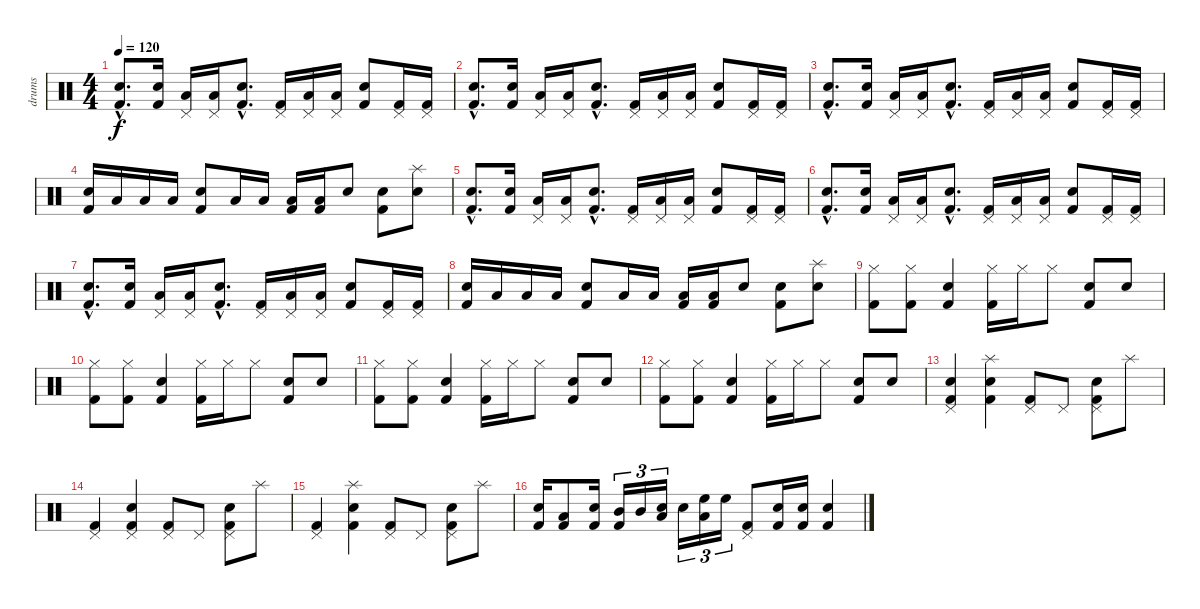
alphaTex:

\track ("drums" "drums") {instrument percussion}
\staff {score}
\articulation defaults
\ts (4 4)
\tempo 120
\clef neutral
\ks c
("Electric Snare (hit)"{hac} "Kick (hit) 2"{hac}).8{d dy f} ("Electric Snare (hit)" "Kick (hit) 2").16 ("Pedal Hi-Hat (hit)" "Low Tom (hit)").16 ("Pedal Hi-Hat (hit)" "Low Tom (hit)").16 ("Electric Snare (hit)"{hac} "Kick (hit) 2"{hac}).8{d} ("Pedal Hi-Hat (hit)" "Kick (hit) 2").16 ("Pedal Hi-Hat (hit)" "Low Tom (hit)").16 ("Pedal Hi-Hat (hit)" "Low Tom (hit)").16 ("Electric Snare (hit)" "Kick (hit) 2").8 ("Pedal Hi-Hat (hit)" "Kick (hit) 2").16 ("Pedal Hi-Hat (hit)" "Kick (hit) 2").16 |
("Electric Snare (hit)"{hac} "Kick (hit) 2"{hac}).8{d} ("Electric Snare (hit)" "Kick (hit) 2").16 ("Pedal Hi-Hat (hit)" "Low Tom (hit)").16 ("Pedal Hi-Hat (hit)" "Low Tom (hit)").16 ("Electric Snare (hit)"{hac} "Kick (hit) 2"{hac}).8{d} ("Pedal Hi-Hat (hit)" "Kick (hit) 2").16 ("Pedal Hi-Hat (hit)" "Low Tom (hit)").16 ("Pedal Hi-Hat (hit)" "Low Tom (hit)").16 ("Electric Snare (hit)" "Kick (hit) 2").8 ("Pedal Hi-Hat (hit)" "Kick (hit) 2").16 ("Pedal Hi-Hat (hit)" "Kick (hit) 2").16 |
("Electric Snare (hit)"{hac} "Kick (hit) 2"{hac}).8{d} ("Electric Snare (hit)" "Kick (hit) 2").16 ("Pedal Hi-Hat (hit)" "Low Tom (hit)").16 ("Pedal Hi-Hat (hit)" "Low Tom (hit)").16 ("Electric Snare (hit)"{hac} "Kick (hit) 2"{hac}).8{d} ("Pedal Hi-Hat (hit)" "Kick (hit) 2").16 ("Pedal Hi-Hat (hit)" "Low Tom (hit)").16 ("Pedal Hi-Hat (hit)" "Low Tom (hit)").16 ("Electric Snare (hit)" "Kick (hit) 2").8 ("Pedal Hi-Hat (hit)" "Kick (hit) 2").16 ("Pedal Hi-Hat (hit)" "Kick (hit) 2").16 |
("Electric Snare (hit)" "Kick (hit) 2").16 "Low Tom (hit)".16 "Low Tom (hit)".16 "Low Tom (hit)".16 ("Electric Snare (hit)" "Kick (hit) 2").8 "Low Tom (hit)".16 "Low Tom (hit)".16 ("Low Tom (hit)" "Kick (hit) 2").16 ("Low Tom (hit)" "Kick (hit) 2").16 "Electric Snare (hit)".8 ("Electric Snare (hit)" "Kick (hit) 2").8 ("Splash (hit)" "Electric Snare (hit)").8 |
("Electric Snare (hit)"{hac} "Kick (hit) 2"{hac}).8{d} ("Electric Snare (hit)" "Kick (hit) 2").16 ("Pedal Hi-Hat (hit)" "Low Tom (hit)").16 ("Pedal Hi-Hat (hit)" "Low Tom (hit)").16 ("Electric Snare (hit)"{hac} "Kick (hit) 2"{hac}).8{d} ("Pedal Hi-Hat (hit)" "Kick (hit) 2").16 ("Pedal Hi-Hat (hit)" "Low Tom (hit)").16 ("Pedal Hi-Hat (hit)" "Low Tom (hit)").16 ("Electric Snare (hit)" "Kick (hit) 2").8 ("Pedal Hi-Hat (hit)" "Kick (hit) 2").16 ("Pedal Hi-Hat (hit)" "Kick (hit) 2").16 |
("Electric Snare (hit)"{hac} "Kick (hit) 2"{hac}).8{d} ("Electric Snare (hit)" "Kick (hit) 2").16 ("Pedal Hi-Hat (hit)" "Low Tom (hit)").16 ("Pedal Hi-Hat (hit)" "Low Tom (hit)").16 ("Electric Snare (hit)"{hac} "Kick (hit) 2"{hac}).8{d} ("Pedal Hi-Hat (hit)" "Kick (hit) 2").16 ("Pedal Hi-Hat (hit)" "Low Tom (hit)").16 ("Pedal Hi-Hat (hit)" "Low Tom (hit)").16 ("Electric Snare (hit)" "Kick (hit) 2").8 ("Pedal Hi-Hat (hit)" "Kick (hit) 2").16 ("Pedal Hi-Hat (hit)" "Kick (hit) 2").16 |
("Electric Snare (hit)"{hac} "Kick (hit) 2"{hac}).8{d} ("Electric Snare (hit)" "Kick (hit) 2").16 ("Pedal Hi-Hat (hit)" "Low Tom (hit)").16 ("Pedal Hi-Hat (hit)" "Low Tom (hit)").16 ("Electric Snare (hit)"{hac} "Kick (hit) 2"{hac}).8{d} ("Pedal Hi-Hat (hit)" "Kick (hit) 2").16 ("Pedal Hi-Hat (hit)" "Low Tom (hit)").16 ("Pedal Hi-Hat (hit)" "Low Tom (hit)").16 ("Electric Snare (hit)" "Kick (hit) 2").8 ("Pedal Hi-Hat (hit)" "Kick (hit) 2").16 ("Pedal Hi-Hat (hit)" "Kick (hit) 2").16 |
("Electric Snare (hit)" "Kick (hit) 2").16 "Low Tom (hit)".16 "Low Tom (hit)".16 "Low Tom (hit)".16 ("Electric Snare (hit)" "Kick (hit) 2").8 "Low Tom (hit)".16 "Low Tom (hit)".16 ("Low Tom (hit)" "Kick (hit) 2").16 ("Low Tom (hit)" "Kick (hit) 2").16 "Electric Snare (hit)".8 ("Electric Snare (hit)" "Kick (hit) 2").8 ("Splash (hit)" "Electric Snare (hit)").8 |
("Hi-Hat (closed)" "Kick (hit) 2").8 ("Hi-Hat (closed)" "Kick (hit) 2").8 ("Snare (hit) 2" "Kick (hit) 2").4 ("Hi-Hat (closed)" "Kick (hit) 2").16 "Hi-Hat (closed)".16 "Hi-Hat (closed)".8 ("Snare (hit) 2" "Kick (hit) 2").8 "Snare (hit) 2".8 |
("Hi-Hat (closed)" "Kick (hit) 2").8 ("Hi-Hat (closed)" "Kick (hit) 2").8 ("Snare (hit) 2" "Kick (hit) 2").4 ("Hi-Hat (closed)" "Kick (hit) 2").16 "Hi-Hat (closed)".16 "Hi-Hat (closed)".8 ("Snare (hit) 2" "Kick (hit) 2").8 "Snare (hit) 2".8 |
("Hi-Hat (closed)" "Kick (hit) 2").8 ("Hi-Hat (closed)" "Kick (hit) 2").8 ("Snare (hit) 2" "Kick (hit) 2").4 ("Hi-Hat (closed)" "Kick (hit) 2").16 "Hi-Hat (closed)".16 "Hi-Hat (closed)".8 ("Snare (hit) 2" "Kick (hit) 2").8 "Snare (hit) 2".8 |
("Hi-Hat (closed)" "Kick (hit) 2").8 ("Hi-Hat (closed)" "Kick (hit) 2").8 ("Snare (hit) 2" "Kick (hit) 2").4 ("Hi-Hat (closed)" "Kick (hit) 2").16 "Hi-Hat (closed)".16 "Hi-Hat (closed)".8 ("Snare (hit) 2" "Kick (hit) 2").8 "Snare (hit) 2".8 |
("Pedal Hi-Hat (hit)" "Electric Snare (hit)" "Kick (hit) 2").4 ("Splash (hit)" "Electric Snare (hit)" "Kick (hit) 2").4 ("Pedal Hi-Hat (hit)" "Kick (hit) 2").8 "Pedal Hi-Hat (hit)".8 ("Pedal Hi-Hat (hit)" "Electric Snare (hit)" "Kick (hit) 2").8 "Splash (hit)".8 |
("Pedal Hi-Hat (hit)" "Kick (hit) 2").4 ("Pedal Hi-Hat (hit)" "Electric Snare (hit)" "Kick (hit) 2").4 ("Pedal Hi-Hat (hit)" "Kick (hit) 2").8 "Pedal Hi-Hat (hit)".8 ("Pedal Hi-Hat (hit)" "Electric Snare (hit)" "Kick (hit) 2").8 "Splash (hit)".8 |
("Pedal Hi-Hat (hit)" "Kick (hit) 2").4 ("Splash (hit)" "Electric Snare (hit)" "Kick (hit) 2").4 ("Pedal Hi-Hat (hit)" "Kick (hit) 2").8 "Pedal Hi-Hat (hit)".8 ("Pedal Hi-Hat (hit)" "Electric Snare (hit)" "Kick (hit) 2").8 "Splash (hit)".8 |
("Electric Snare (hit)" "Kick (hit) 2").16 ("Low Tom (hit)" "Kick (hit) 2").8 ("Electric Snare (hit)" "Kick (hit) 2").16 ("Mid Tom (hit)" "Kick (hit) 2").16{tu (3 2)} "Mid Tom (hit)".16{tu (3 2)} ("Electric Snare (hit)" "Low Tom (hit)").16{tu (3 2)} "Electric Snare (hit)".16{tu (3 2)} ("High Floor Tom (hit)" "Low Tom (hit)").16{tu (3 2)} "High Floor Tom (hit)".16{tu (3 2)} ("Pedal Hi-Hat (hit)" "Kick (hit) 2").8 ("Electric Snare (hit)" "Kick (hit) 2").16 ("Electric Snare (hit)" "Kick (hit) 2").16 ("Electric Snare (hit)" "Kick (hit) 2").4
